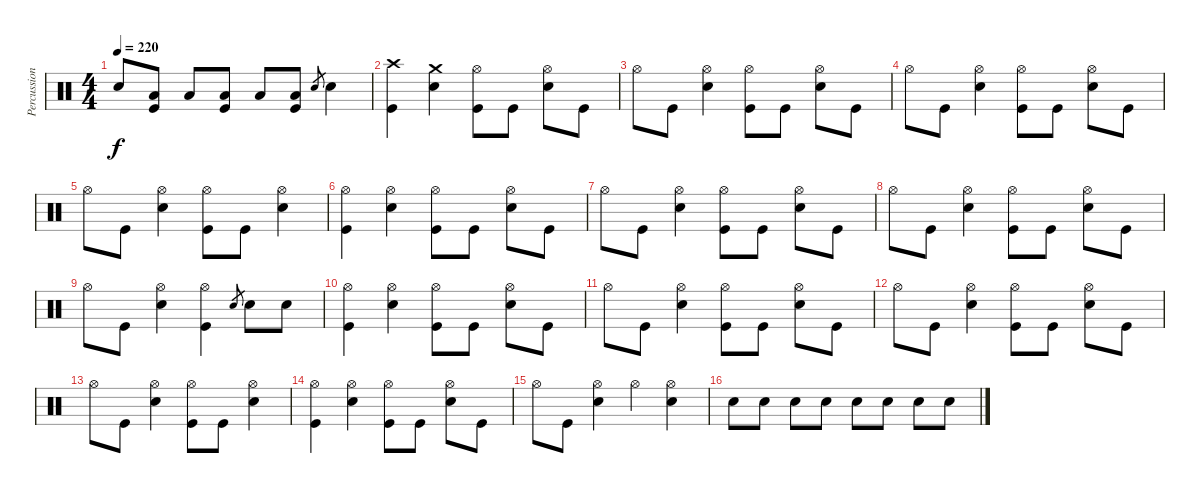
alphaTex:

\track ("Percussions" "Percussion") {instrument percussion}
\staff {score}
\articulation defaults
\ts (4 4)
\tempo 220
\clef neutral
\ks c "Electric Snare (hit)".8{dy f}
("Kick (hit)" "Low Tom (hit)").8 "Low Tom (hit)".8 ("Kick (hit)" "Low Tom (hit)").8 "Low Tom (hit)".8 ("Kick (hit)" "Low Tom (hit)").8 "Electric Snare (hit)".8{gr} "Electric Snare (hit)".4 |
("Kick (hit)" "Crash high (hit)").4 ("Electric Snare (hit)" "Crash medium (hit)").4 ("Kick (hit)" "Hi-Hat (open)").8 "Kick (hit)".8 ("Electric Snare (hit)" "Hi-Hat (open)").8 "Kick (hit)".8 |
"Hi-Hat (open)".8 "Kick (hit)".8 ("Electric Snare (hit)" "Hi-Hat (open)").4 ("Kick (hit)" "Hi-Hat (open)").8 "Kick (hit)".8 ("Electric Snare (hit)" "Hi-Hat (open)").8 "Kick (hit)".8 |
"Hi-Hat (open)".8 "Kick (hit)".8 ("Electric Snare (hit)" "Hi-Hat (open)").4 ("Kick (hit)" "Hi-Hat (open)").8 "Kick (hit)".8 ("Electric Snare (hit)" "Hi-Hat (open)").8 "Kick (hit)".8 |
"Hi-Hat (open)".8 "Kick (hit)".8 ("Electric Snare (hit)" "Hi-Hat (open)").4 ("Kick (hit)" "Hi-Hat (open)").8 "Kick (hit)".8 ("Electric Snare (hit)" "Hi-Hat (open)").4 |
("Kick (hit)" "Hi-Hat (open)").4 ("Electric Snare (hit)" "Hi-Hat (open)").4 ("Kick (hit)" "Hi-Hat (open)").8 "Kick (hit)".8 ("Electric Snare (hit)" "Hi-Hat (open)").8 "Kick (hit)".8 |
"Hi-Hat (open)".8 "Kick (hit)".8 ("Electric Snare (hit)" "Hi-Hat (open)").4 ("Kick (hit)" "Hi-Hat (open)").8 "Kick (hit)".8 ("Electric Snare (hit)" "Hi-Hat (open)").8 "Kick (hit)".8 |
"Hi-Hat (open)".8 "Kick (hit)".8 ("Electric Snare (hit)" "Hi-Hat (open)").4 ("Kick (hit)" "Hi-Hat (open)").8 "Kick (hit)".8 ("Electric Snare (hit)" "Hi-Hat (open)").8 "Kick (hit)".8 |
"Hi-Hat (open)".8 "Kick (hit)".8 ("Electric Snare (hit)" "Hi-Hat (open)").4 ("Kick (hit)" "Hi-Hat (open)").4 "Electric Snare (hit)".8{gr} "Electric Snare (hit)".8 "Electric Snare (hit)".8 |
("Kick (hit)" "Hi-Hat (open)").4 ("Electric Snare (hit)" "Hi-Hat (open)").4 ("Kick (hit)" "Hi-Hat (open)").8 "Kick (hit)".8 ("Electric Snare (hit)" "Hi-Hat (open)").8 "Kick (hit)".8 |
"Hi-Hat (open)".8 "Kick (hit)".8 ("Electric Snare (hit)" "Hi-Hat (open)").4 ("Kick (hit)" "Hi-Hat (open)").8 "Kick (hit)".8 ("Electric Snare (hit)" "Hi-Hat (open)").8 "Kick (hit)".8 |
"Hi-Hat (open)".8 "Kick (hit)".8 ("Electric Snare (hit)" "Hi-Hat (open)").4 ("Kick (hit)" "Hi-Hat (open)").8 "Kick (hit)".8 ("Electric Snare (hit)" "Hi-Hat (open)").8 "Kick (hit)".8 |
"Hi-Hat (open)".8 "Kick (hit)".8 ("Electric Snare (hit)" "Hi-Hat (open)").4 ("Kick (hit)" "Hi-Hat (open)").8 "Kick (hit)".8 ("Electric Snare (hit)" "Hi-Hat (open)").4 |
("Kick (hit)" "Hi-Hat (open)").4 ("Electric Snare (hit)" "Hi-Hat (open)").4 ("Kick (hit)" "Hi-Hat (open)").8 "Kick (hit)".8 ("Electric Snare (hit)" "Hi-Hat (open)").8 "Kick (hit)".8 |
"Hi-Hat (open)".8 "Kick (hit)".8 ("Electric Snare (hit)" "Hi-Hat (open)").4 "Hi-Hat (open)".4 ("Electric Snare (hit)" "Hi-Hat (open)").4 |
"Electric Snare (hit)".8 "Electric Snare (hit)".8 "Electric Snare (hit)".8 "Electric Snare (hit)".8 "Electric Snare (hit)".8 "Electric Snare (hit)".8 "Electric Snare (hit)".8 "Electric Snare (hit)".8
